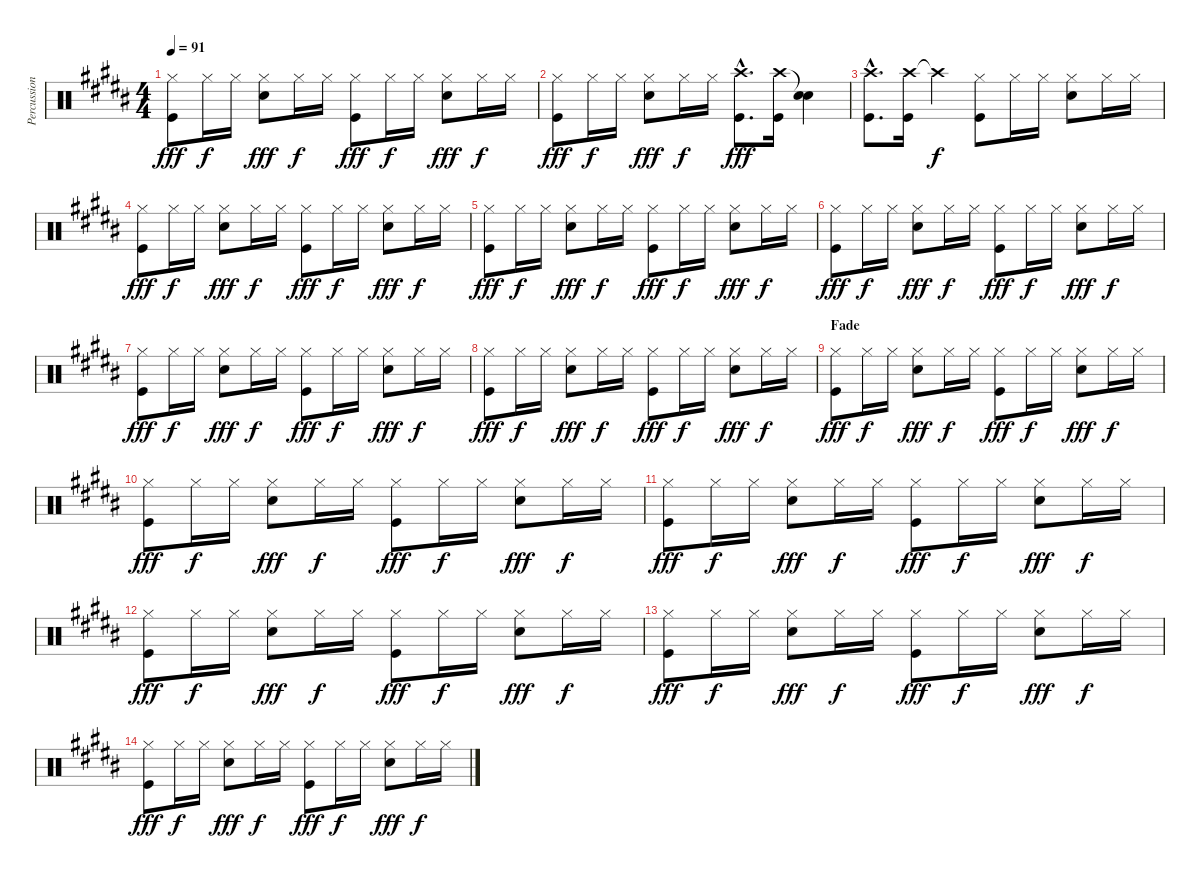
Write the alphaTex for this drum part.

\track ("Percussion" "Percussion") {instrument percussion}
\staff {score}
\articulation defaults
\ts (4 4)
\tempo 91
\clef neutral
\ks b
("Hi-Hat (closed)" "Kick (hit)").8{dy fff} "Hi-Hat (closed)".16{dy f} "Hi-Hat (closed)".16 ("Hi-Hat (closed)" "Electric Snare (hit)").8{dy fff} "Hi-Hat (closed)".16{dy f} "Hi-Hat (closed)".16 ("Hi-Hat (closed)" "Kick (hit)").8{dy fff} "Hi-Hat (closed)".16{dy f} "Hi-Hat (closed)".16 ("Hi-Hat (closed)" "Electric Snare (hit)").8{dy fff} "Hi-Hat (closed)".16{dy f} "Hi-Hat (closed)".16 |
("Hi-Hat (closed)" "Kick (hit)").8{dy fff} "Hi-Hat (closed)".16{dy f} "Hi-Hat (closed)".16 ("Hi-Hat (closed)" "Electric Snare (hit)").8{dy fff} "Hi-Hat (closed)".16{dy f} "Hi-Hat (closed)".16 ("Crash high (hit)"{hac} "Kick (hit)"{hac}).8{d dy fff} ("Crash high (hit)" "Kick (hit)").16 ("Snare (hit)"{t} "Electric Snare (hit)").4 |
("Crash high (hit)"{hac} "Kick (hit)"{hac}).8{d} ("Crash high (hit)" "Kick (hit)").16 "Crash high (hit)"{t}.4{dy f} ("Hi-Hat (closed)" "Kick (hit)").8 "Hi-Hat (closed)".16 "Hi-Hat (closed)".16 ("Hi-Hat (closed)" "Snare (hit) 2").8 "Hi-Hat (closed)".16 "Hi-Hat (closed)".16 |
("Hi-Hat (closed)" "Kick (hit)").8{dy fff} "Hi-Hat (closed)".16{dy f} "Hi-Hat (closed)".16 ("Hi-Hat (closed)" "Electric Snare (hit)").8{dy fff} "Hi-Hat (closed)".16{dy f} "Hi-Hat (closed)".16 ("Hi-Hat (closed)" "Kick (hit)").8{dy fff} "Hi-Hat (closed)".16{dy f} "Hi-Hat (closed)".16 ("Hi-Hat (closed)" "Electric Snare (hit)").8{dy fff} "Hi-Hat (closed)".16{dy f} "Hi-Hat (closed)".16 |
("Hi-Hat (closed)" "Kick (hit)").8{dy fff} "Hi-Hat (closed)".16{dy f} "Hi-Hat (closed)".16 ("Hi-Hat (closed)" "Electric Snare (hit)").8{dy fff} "Hi-Hat (closed)".16{dy f} "Hi-Hat (closed)".16 ("Hi-Hat (closed)" "Kick (hit)").8{dy fff} "Hi-Hat (closed)".16{dy f} "Hi-Hat (closed)".16 ("Hi-Hat (closed)" "Electric Snare (hit)").8{dy fff} "Hi-Hat (closed)".16{dy f} "Hi-Hat (closed)".16 |
("Hi-Hat (closed)" "Kick (hit)").8{dy fff} "Hi-Hat (closed)".16{dy f} "Hi-Hat (closed)".16 ("Hi-Hat (closed)" "Electric Snare (hit)").8{dy fff} "Hi-Hat (closed)".16{dy f} "Hi-Hat (closed)".16 ("Hi-Hat (closed)" "Kick (hit)").8{dy fff} "Hi-Hat (closed)".16{dy f} "Hi-Hat (closed)".16 ("Hi-Hat (closed)" "Electric Snare (hit)").8{dy fff} "Hi-Hat (closed)".16{dy f} "Hi-Hat (closed)".16 |
("Hi-Hat (closed)" "Kick (hit)").8{dy fff} "Hi-Hat (closed)".16{dy f} "Hi-Hat (closed)".16 ("Hi-Hat (closed)" "Electric Snare (hit)").8{dy fff} "Hi-Hat (closed)".16{dy f} "Hi-Hat (closed)".16 ("Hi-Hat (closed)" "Kick (hit)").8{dy fff} "Hi-Hat (closed)".16{dy f} "Hi-Hat (closed)".16 ("Hi-Hat (closed)" "Electric Snare (hit)").8{dy fff} "Hi-Hat (closed)".16{dy f} "Hi-Hat (closed)".16 |
("Hi-Hat (closed)" "Kick (hit)").8{dy fff} "Hi-Hat (closed)".16{dy f} "Hi-Hat (closed)".16 ("Hi-Hat (closed)" "Electric Snare (hit)").8{dy fff} "Hi-Hat (closed)".16{dy f} "Hi-Hat (closed)".16 ("Hi-Hat (closed)" "Kick (hit)").8{dy fff} "Hi-Hat (closed)".16{dy f} "Hi-Hat (closed)".16 ("Hi-Hat (closed)" "Electric Snare (hit)").8{dy fff} "Hi-Hat (closed)".16{dy f} "Hi-Hat (closed)".16 |
\section ("" "Fade")
("Hi-Hat (closed)" "Kick (hit)").8{dy fff} "Hi-Hat (closed)".16{dy f} "Hi-Hat (closed)".16 ("Hi-Hat (closed)" "Electric Snare (hit)").8{dy fff} "Hi-Hat (closed)".16{dy f} "Hi-Hat (closed)".16 ("Hi-Hat (closed)" "Kick (hit)").8{dy fff} "Hi-Hat (closed)".16{dy f} "Hi-Hat (closed)".16 ("Hi-Hat (closed)" "Electric Snare (hit)").8{dy fff} "Hi-Hat (closed)".16{dy f} "Hi-Hat (closed)".16 |
("Hi-Hat (closed)" "Kick (hit)").8{dy fff} "Hi-Hat (closed)".16{dy f} "Hi-Hat (closed)".16 ("Hi-Hat (closed)" "Electric Snare (hit)").8{dy fff} "Hi-Hat (closed)".16{dy f} "Hi-Hat (closed)".16 ("Hi-Hat (closed)" "Kick (hit)").8{dy fff} "Hi-Hat (closed)".16{dy f} "Hi-Hat (closed)".16 ("Hi-Hat (closed)" "Electric Snare (hit)").8{dy fff} "Hi-Hat (closed)".16{dy f} "Hi-Hat (closed)".16 |
("Hi-Hat (closed)" "Kick (hit)").8{dy fff} "Hi-Hat (closed)".16{dy f} "Hi-Hat (closed)".16 ("Hi-Hat (closed)" "Electric Snare (hit)").8{dy fff} "Hi-Hat (closed)".16{dy f} "Hi-Hat (closed)".16 ("Hi-Hat (closed)" "Kick (hit)").8{dy fff} "Hi-Hat (closed)".16{dy f} "Hi-Hat (closed)".16 ("Hi-Hat (closed)" "Electric Snare (hit)").8{dy fff} "Hi-Hat (closed)".16{dy f} "Hi-Hat (closed)".16 |
("Hi-Hat (closed)" "Kick (hit)").8{dy fff} "Hi-Hat (closed)".16{dy f} "Hi-Hat (closed)".16 ("Hi-Hat (closed)" "Electric Snare (hit)").8{dy fff} "Hi-Hat (closed)".16{dy f} "Hi-Hat (closed)".16 ("Hi-Hat (closed)" "Kick (hit)").8{dy fff} "Hi-Hat (closed)".16{dy f} "Hi-Hat (closed)".16 ("Hi-Hat (closed)" "Electric Snare (hit)").8{dy fff} "Hi-Hat (closed)".16{dy f} "Hi-Hat (closed)".16 |
("Hi-Hat (closed)" "Kick (hit)").8{dy fff} "Hi-Hat (closed)".16{dy f} "Hi-Hat (closed)".16 ("Hi-Hat (closed)" "Electric Snare (hit)").8{dy fff} "Hi-Hat (closed)".16{dy f} "Hi-Hat (closed)".16 ("Hi-Hat (closed)" "Kick (hit)").8{dy fff} "Hi-Hat (closed)".16{dy f} "Hi-Hat (closed)".16 ("Hi-Hat (closed)" "Electric Snare (hit)").8{dy fff} "Hi-Hat (closed)".16{dy f} "Hi-Hat (closed)".16 |
("Hi-Hat (closed)" "Kick (hit)").8{dy fff} "Hi-Hat (closed)".16{dy f} "Hi-Hat (closed)".16 ("Hi-Hat (closed)" "Electric Snare (hit)").8{dy fff} "Hi-Hat (closed)".16{dy f} "Hi-Hat (closed)".16 ("Hi-Hat (closed)" "Kick (hit)").8{dy fff} "Hi-Hat (closed)".16{dy f} "Hi-Hat (closed)".16 ("Hi-Hat (closed)" "Electric Snare (hit)").8{dy fff} "Hi-Hat (closed)".16{dy f} "Hi-Hat (closed)".16
